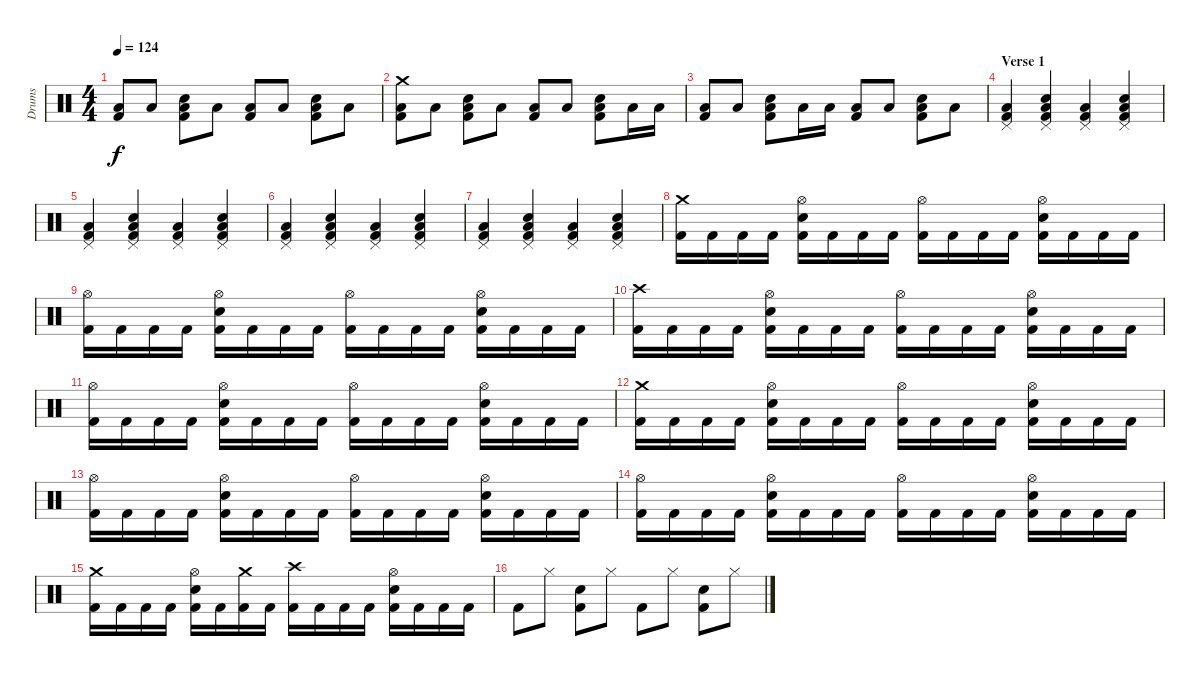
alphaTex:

\track ("Drums" "Drums") {instrument percussion}
\staff {score}
\articulation defaults
\ts (4 4)
\tempo 124
\clef neutral
\ks c
("Low Floor Tom (hit)" "Kick (hit) 2").8{dy f} "Low Floor Tom (hit)".8 ("Low Floor Tom (hit)" "Electric Snare (hit)" "Kick (hit) 2").8 "Low Floor Tom (hit)".8 ("Low Floor Tom (hit)" "Kick (hit) 2").8 "Low Floor Tom (hit)".8 ("Low Floor Tom (hit)" "Electric Snare (hit)" "Kick (hit) 2").8 "Low Floor Tom (hit)".8 |
("Crash medium (hit)" "Low Floor Tom (hit)" "Kick (hit) 2").8 "Low Floor Tom (hit)".8 ("Low Floor Tom (hit)" "Electric Snare (hit)" "Kick (hit) 2").8 "Low Floor Tom (hit)".8 ("Low Floor Tom (hit)" "Kick (hit) 2").8 "Low Floor Tom (hit)".8 ("Low Floor Tom (hit)" "Electric Snare (hit)" "Kick (hit) 2").8 "Low Floor Tom (hit)".16 "Low Floor Tom (hit)".16 |
("Low Floor Tom (hit)" "Kick (hit) 2").8 "Low Floor Tom (hit)".8 ("Low Floor Tom (hit)" "Electric Snare (hit)" "Kick (hit) 2").8 "Low Floor Tom (hit)".16 "Low Floor Tom (hit)".16 ("Low Floor Tom (hit)" "Kick (hit) 2").8 "Low Floor Tom (hit)".8 ("Low Floor Tom (hit)" "Electric Snare (hit)" "Kick (hit) 2").8 "Low Floor Tom (hit)".8 |
\section ("" "Verse 1")
("Pedal Hi-Hat (hit)" "Low Floor Tom (hit)" "Kick (hit) 2").4 ("Pedal Hi-Hat (hit)" "Low Floor Tom (hit)" "Electric Snare (hit)" "Kick (hit) 2").4 ("Pedal Hi-Hat (hit)" "Low Floor Tom (hit)" "Kick (hit) 2").4 ("Pedal Hi-Hat (hit)" "Low Floor Tom (hit)" "Electric Snare (hit)" "Kick (hit) 2").4 |
("Pedal Hi-Hat (hit)" "Low Floor Tom (hit)" "Kick (hit) 2").4 ("Pedal Hi-Hat (hit)" "Low Floor Tom (hit)" "Electric Snare (hit)" "Kick (hit) 2").4 ("Pedal Hi-Hat (hit)" "Low Floor Tom (hit)" "Kick (hit) 2").4 ("Pedal Hi-Hat (hit)" "Low Floor Tom (hit)" "Electric Snare (hit)" "Kick (hit) 2").4 |
("Pedal Hi-Hat (hit)" "Low Floor Tom (hit)" "Kick (hit) 2").4 ("Pedal Hi-Hat (hit)" "Low Floor Tom (hit)" "Electric Snare (hit)" "Kick (hit) 2").4 ("Pedal Hi-Hat (hit)" "Low Floor Tom (hit)" "Kick (hit) 2").4 ("Pedal Hi-Hat (hit)" "Low Floor Tom (hit)" "Electric Snare (hit)" "Kick (hit) 2").4 |
("Pedal Hi-Hat (hit)" "Low Floor Tom (hit)" "Kick (hit) 2").4 ("Pedal Hi-Hat (hit)" "Low Floor Tom (hit)" "Electric Snare (hit)" "Kick (hit) 2").4 ("Pedal Hi-Hat (hit)" "Low Floor Tom (hit)" "Kick (hit) 2").4 ("Pedal Hi-Hat (hit)" "Low Floor Tom (hit)" "Electric Snare (hit)" "Kick (hit) 2").4 |
("Crash medium (hit)" "Kick (hit) 2").16 "Kick (hit) 2".16 "Kick (hit) 2".16 "Kick (hit) 2".16 ("Hi-Hat (open)" "Electric Snare (hit)" "Kick (hit) 2").16 "Kick (hit) 2".16 "Kick (hit) 2".16 "Kick (hit) 2".16 ("Hi-Hat (open)" "Kick (hit) 2").16 "Kick (hit) 2".16 "Kick (hit) 2".16 "Kick (hit) 2".16 ("Hi-Hat (open)" "Electric Snare (hit)" "Kick (hit) 2").16 "Kick (hit) 2".16 "Kick (hit) 2".16 "Kick (hit) 2".16 |
("Hi-Hat (open)" "Kick (hit) 2").16 "Kick (hit) 2".16 "Kick (hit) 2".16 "Kick (hit) 2".16 ("Hi-Hat (open)" "Electric Snare (hit)" "Kick (hit) 2").16 "Kick (hit) 2".16 "Kick (hit) 2".16 "Kick (hit) 2".16 ("Hi-Hat (open)" "Kick (hit) 2").16 "Kick (hit) 2".16 "Kick (hit) 2".16 "Kick (hit) 2".16 ("Hi-Hat (open)" "Electric Snare (hit)" "Kick (hit) 2").16 "Kick (hit) 2".16 "Kick (hit) 2".16 "Kick (hit) 2".16 |
("Crash high (hit)" "Kick (hit) 2").16 "Kick (hit) 2".16 "Kick (hit) 2".16 "Kick (hit) 2".16 ("Hi-Hat (open)" "Electric Snare (hit)" "Kick (hit) 2").16 "Kick (hit) 2".16 "Kick (hit) 2".16 "Kick (hit) 2".16 ("Hi-Hat (open)" "Kick (hit) 2").16 "Kick (hit) 2".16 "Kick (hit) 2".16 "Kick (hit) 2".16 ("Hi-Hat (open)" "Electric Snare (hit)" "Kick (hit) 2").16 "Kick (hit) 2".16 "Kick (hit) 2".16 "Kick (hit) 2".16 |
("Hi-Hat (open)" "Kick (hit) 2").16 "Kick (hit) 2".16 "Kick (hit) 2".16 "Kick (hit) 2".16 ("Hi-Hat (open)" "Electric Snare (hit)" "Kick (hit) 2").16 "Kick (hit) 2".16 "Kick (hit) 2".16 "Kick (hit) 2".16 ("Hi-Hat (open)" "Kick (hit) 2").16 "Kick (hit) 2".16 "Kick (hit) 2".16 "Kick (hit) 2".16 ("Hi-Hat (open)" "Electric Snare (hit)" "Kick (hit) 2").16 "Kick (hit) 2".16 "Kick (hit) 2".16 "Kick (hit) 2".16 |
("Crash medium (hit)" "Kick (hit) 2").16 "Kick (hit) 2".16 "Kick (hit) 2".16 "Kick (hit) 2".16 ("Hi-Hat (open)" "Electric Snare (hit)" "Kick (hit) 2").16 "Kick (hit) 2".16 "Kick (hit) 2".16 "Kick (hit) 2".16 ("Hi-Hat (open)" "Kick (hit) 2").16 "Kick (hit) 2".16 "Kick (hit) 2".16 "Kick (hit) 2".16 ("Hi-Hat (open)" "Electric Snare (hit)" "Kick (hit) 2").16 "Kick (hit) 2".16 "Kick (hit) 2".16 "Kick (hit) 2".16 |
("Hi-Hat (open)" "Kick (hit) 2").16 "Kick (hit) 2".16 "Kick (hit) 2".16 "Kick (hit) 2".16 ("Hi-Hat (open)" "Electric Snare (hit)" "Kick (hit) 2").16 "Kick (hit) 2".16 "Kick (hit) 2".16 "Kick (hit) 2".16 ("Hi-Hat (open)" "Kick (hit) 2").16 "Kick (hit) 2".16 "Kick (hit) 2".16 "Kick (hit) 2".16 ("Hi-Hat (open)" "Electric Snare (hit)" "Kick (hit) 2").16 "Kick (hit) 2".16 "Kick (hit) 2".16 "Kick (hit) 2".16 |
("Hi-Hat (open)" "Kick (hit) 2").16 "Kick (hit) 2".16 "Kick (hit) 2".16 "Kick (hit) 2".16 ("Hi-Hat (open)" "Electric Snare (hit)" "Kick (hit) 2").16 "Kick (hit) 2".16 "Kick (hit) 2".16 "Kick (hit) 2".16 ("Hi-Hat (open)" "Kick (hit) 2").16 "Kick (hit) 2".16 "Kick (hit) 2".16 "Kick (hit) 2".16 ("Hi-Hat (open)" "Electric Snare (hit)" "Kick (hit) 2").16 "Kick (hit) 2".16 "Kick (hit) 2".16 "Kick (hit) 2".16 |
("Crash medium (hit)" "Kick (hit) 2").16 "Kick (hit) 2".16 "Kick (hit) 2".16 "Kick (hit) 2".16 ("Hi-Hat (open)" "Electric Snare (hit)" "Kick (hit) 2").16 "Kick (hit) 2".16 ("Crash medium (hit)" "Kick (hit) 2").16 "Kick (hit) 2".16 ("Crash high (hit)" "Kick (hit) 2").16 "Kick (hit) 2".16 "Kick (hit) 2".16 "Kick (hit) 2".16 ("Hi-Hat (open)" "Electric Snare (hit)" "Kick (hit) 2").16 "Kick (hit) 2".16 "Kick (hit) 2".16 "Kick (hit) 2".16 |
"Kick (hit) 2".8 "Hi-Hat (closed)".8 ("Electric Snare (hit)" "Kick (hit) 2").8 "Hi-Hat (closed)".8 "Kick (hit) 2".8 "Hi-Hat (closed)".8 ("Electric Snare (hit)" "Kick (hit) 2").8 "Hi-Hat (closed)".8
